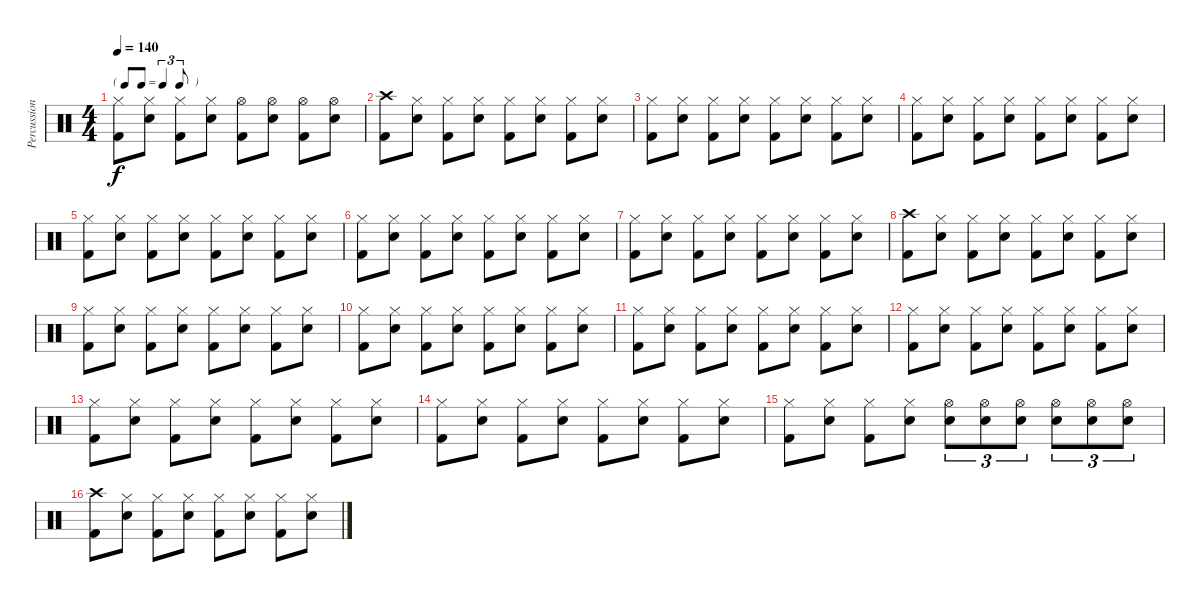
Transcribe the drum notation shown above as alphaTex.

\track ("Percussion" "Percussion") {instrument percussion}
\staff {score}
\articulation defaults
\ts (4 4)
\tf triplet8th
\tempo 140
\clef neutral
\ks c
("Hi-Hat (closed)" "Kick (hit) 2").8{dy f} ("Hi-Hat (closed)" "Snare (hit) 2").8 ("Hi-Hat (closed)" "Kick (hit) 2").8 ("Hi-Hat (closed)" "Snare (hit) 2").8 ("Hi-Hat (open)" "Kick (hit) 2").8 ("Hi-Hat (open)" "Snare (hit) 2").8 ("Hi-Hat (open)" "Kick (hit) 2").8 ("Hi-Hat (open)" "Snare (hit) 2").8 |
("Crash high (hit)" "Kick (hit) 2").8 ("Hi-Hat (closed)" "Snare (hit) 2").8 ("Hi-Hat (closed)" "Kick (hit) 2").8 ("Hi-Hat (closed)" "Snare (hit) 2").8 ("Hi-Hat (closed)" "Kick (hit) 2").8 ("Hi-Hat (closed)" "Snare (hit) 2").8 ("Hi-Hat (closed)" "Kick (hit) 2").8 ("Hi-Hat (closed)" "Snare (hit) 2").8 |
("Hi-Hat (closed)" "Kick (hit) 2").8 ("Hi-Hat (closed)" "Snare (hit) 2").8 ("Hi-Hat (closed)" "Kick (hit) 2").8 ("Hi-Hat (closed)" "Snare (hit) 2").8 ("Hi-Hat (closed)" "Kick (hit) 2").8 ("Hi-Hat (closed)" "Snare (hit) 2").8 ("Hi-Hat (closed)" "Kick (hit) 2").8 ("Hi-Hat (closed)" "Snare (hit) 2").8 |
("Hi-Hat (closed)" "Kick (hit) 2").8 ("Hi-Hat (closed)" "Snare (hit) 2").8 ("Hi-Hat (closed)" "Kick (hit) 2").8 ("Hi-Hat (closed)" "Snare (hit) 2").8 ("Hi-Hat (closed)" "Kick (hit) 2").8 ("Hi-Hat (closed)" "Snare (hit) 2").8 ("Hi-Hat (closed)" "Kick (hit) 2").8 ("Hi-Hat (closed)" "Snare (hit) 2").8 |
("Hi-Hat (closed)" "Kick (hit) 2").8 ("Hi-Hat (closed)" "Snare (hit) 2").8 ("Hi-Hat (closed)" "Kick (hit) 2").8 ("Hi-Hat (closed)" "Snare (hit) 2").8 ("Hi-Hat (closed)" "Kick (hit) 2").8 ("Hi-Hat (closed)" "Snare (hit) 2").8 ("Hi-Hat (closed)" "Kick (hit) 2").8 ("Hi-Hat (closed)" "Snare (hit) 2").8 |
("Hi-Hat (closed)" "Kick (hit) 2").8 ("Hi-Hat (closed)" "Snare (hit) 2").8 ("Hi-Hat (closed)" "Kick (hit) 2").8 ("Hi-Hat (closed)" "Snare (hit) 2").8 ("Hi-Hat (closed)" "Kick (hit) 2").8 ("Hi-Hat (closed)" "Snare (hit) 2").8 ("Hi-Hat (closed)" "Kick (hit) 2").8 ("Hi-Hat (closed)" "Snare (hit) 2").8 |
("Hi-Hat (closed)" "Kick (hit) 2").8 ("Hi-Hat (closed)" "Snare (hit) 2").8 ("Hi-Hat (closed)" "Kick (hit) 2").8 ("Hi-Hat (closed)" "Snare (hit) 2").8 ("Hi-Hat (closed)" "Kick (hit) 2").8 ("Hi-Hat (closed)" "Snare (hit) 2").8 ("Hi-Hat (closed)" "Kick (hit) 2").8 ("Hi-Hat (closed)" "Snare (hit) 2").8 |
("Crash high (hit)" "Kick (hit) 2").8 ("Hi-Hat (closed)" "Snare (hit) 2").8 ("Hi-Hat (closed)" "Kick (hit) 2").8 ("Hi-Hat (closed)" "Snare (hit) 2").8 ("Hi-Hat (closed)" "Kick (hit) 2").8 ("Hi-Hat (closed)" "Snare (hit) 2").8 ("Hi-Hat (closed)" "Kick (hit) 2").8 ("Hi-Hat (closed)" "Snare (hit) 2").8 |
("Hi-Hat (closed)" "Kick (hit) 2").8 ("Hi-Hat (closed)" "Snare (hit) 2").8 ("Hi-Hat (closed)" "Kick (hit) 2").8 ("Hi-Hat (closed)" "Snare (hit) 2").8 ("Hi-Hat (closed)" "Kick (hit) 2").8 ("Hi-Hat (closed)" "Snare (hit) 2").8 ("Hi-Hat (closed)" "Kick (hit) 2").8 ("Hi-Hat (closed)" "Snare (hit) 2").8 |
("Hi-Hat (closed)" "Kick (hit) 2").8 ("Hi-Hat (closed)" "Snare (hit) 2").8 ("Hi-Hat (closed)" "Kick (hit) 2").8 ("Hi-Hat (closed)" "Snare (hit) 2").8 ("Hi-Hat (closed)" "Kick (hit) 2").8 ("Hi-Hat (closed)" "Snare (hit) 2").8 ("Hi-Hat (closed)" "Kick (hit) 2").8 ("Hi-Hat (closed)" "Snare (hit) 2").8 |
("Hi-Hat (closed)" "Kick (hit) 2").8 ("Hi-Hat (closed)" "Snare (hit) 2").8 ("Hi-Hat (closed)" "Kick (hit) 2").8 ("Hi-Hat (closed)" "Snare (hit) 2").8 ("Hi-Hat (closed)" "Kick (hit) 2").8 ("Hi-Hat (closed)" "Snare (hit) 2").8 ("Hi-Hat (closed)" "Kick (hit) 2").8 ("Hi-Hat (closed)" "Snare (hit) 2").8 |
("Hi-Hat (closed)" "Kick (hit) 2").8 ("Hi-Hat (closed)" "Snare (hit) 2").8 ("Hi-Hat (closed)" "Kick (hit) 2").8 ("Hi-Hat (closed)" "Snare (hit) 2").8 ("Hi-Hat (closed)" "Kick (hit) 2").8 ("Hi-Hat (closed)" "Snare (hit) 2").8 ("Hi-Hat (closed)" "Kick (hit) 2").8 ("Hi-Hat (closed)" "Snare (hit) 2").8 |
("Hi-Hat (closed)" "Kick (hit) 2").8 ("Hi-Hat (closed)" "Snare (hit) 2").8 ("Hi-Hat (closed)" "Kick (hit) 2").8 ("Hi-Hat (closed)" "Snare (hit) 2").8 ("Hi-Hat (closed)" "Kick (hit) 2").8 ("Hi-Hat (closed)" "Snare (hit) 2").8 ("Hi-Hat (closed)" "Kick (hit) 2").8 ("Hi-Hat (closed)" "Snare (hit) 2").8 |
("Hi-Hat (closed)" "Kick (hit) 2").8 ("Hi-Hat (closed)" "Snare (hit) 2").8 ("Hi-Hat (closed)" "Kick (hit) 2").8 ("Hi-Hat (closed)" "Snare (hit) 2").8 ("Hi-Hat (closed)" "Kick (hit) 2").8 ("Hi-Hat (closed)" "Snare (hit) 2").8 ("Hi-Hat (closed)" "Kick (hit) 2").8 ("Hi-Hat (closed)" "Snare (hit) 2").8 |
("Hi-Hat (closed)" "Kick (hit) 2").8 ("Hi-Hat (closed)" "Snare (hit) 2").8 ("Hi-Hat (closed)" "Kick (hit) 2").8 ("Hi-Hat (closed)" "Snare (hit) 2").8 ("Hi-Hat (open)" "Snare (hit) 2").8{tu (3 2)} ("Hi-Hat (open)" "Snare (hit) 2").8{tu (3 2)} ("Hi-Hat (open)" "Snare (hit) 2").8{tu (3 2)} ("Hi-Hat (open)" "Snare (hit) 2").8{tu (3 2)} ("Hi-Hat (open)" "Snare (hit) 2").8{tu (3 2)} ("Hi-Hat (open)" "Snare (hit) 2").8{tu (3 2)} |
("Crash high (hit)" "Kick (hit) 2").8 ("Hi-Hat (closed)" "Snare (hit) 2").8 ("Hi-Hat (closed)" "Kick (hit) 2").8 ("Hi-Hat (closed)" "Snare (hit) 2").8 ("Hi-Hat (closed)" "Kick (hit) 2").8 ("Hi-Hat (closed)" "Snare (hit) 2").8 ("Hi-Hat (closed)" "Kick (hit) 2").8 ("Hi-Hat (closed)" "Snare (hit) 2").8
